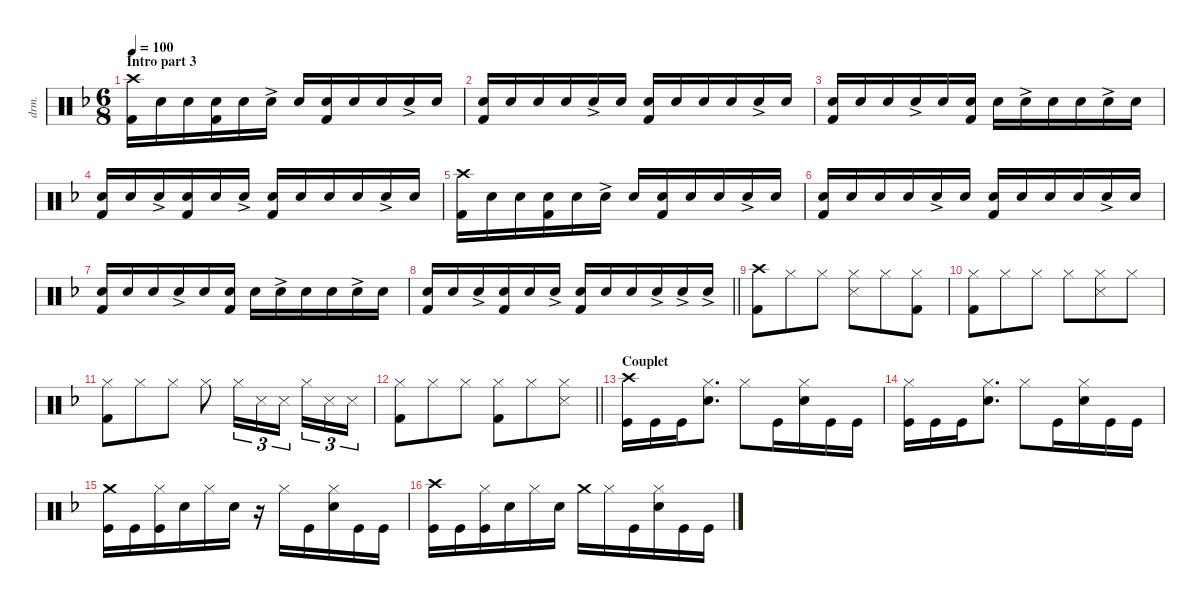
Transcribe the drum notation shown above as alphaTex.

\defaultSystemsLayout 4
\hideDynamics
\bracketExtendMode nobrackets
\otherSystemsTrackNameOrientation horizontal
\track ("Percussions" "drm.") {instrument percussion}
\staff {score}
\articulation defaults
\ts (6 8)
\section ("" "Intro part 3")
\tempo 100
\clef neutral
\ks dminor
("Crash high (hit)"{acc forcenatural} "Kick (hit) 2"{acc forcenatural}).16{dy f} "Snare (hit) 2"{acc forcenatural}.16{dy p} "Snare (hit) 2"{acc forcenatural}.16 ("Snare (hit) 2"{acc forcenatural} "Kick (hit) 2"{acc forcenatural}).16 "Snare (hit) 2"{acc forcenatural}.16 "Snare (hit) 2"{ac acc forcenatural}.16{dy mf} "Snare (hit) 2"{acc forcenatural}.16{dy p} ("Kick (hit) 2"{acc forcenatural} "Snare (hit) 2"{acc forcenatural}).16{dy f} "Snare (hit) 2"{acc forcenatural}.16{dy p} "Snare (hit) 2"{acc forcenatural}.16 "Snare (hit) 2"{ac acc forcenatural}.16{dy mf} "Snare (hit) 2"{acc forcenatural}.16{dy p} |
("Snare (hit) 2"{acc forcenatural} "Kick (hit) 2"{acc forcenatural}).16 "Snare (hit) 2"{acc forcenatural}.16 "Snare (hit) 2"{acc forcenatural}.16 "Snare (hit) 2"{acc forcenatural}.16 "Snare (hit) 2"{ac acc forcenatural}.16{dy f} "Snare (hit) 2"{acc forcenatural}.16{dy p} ("Snare (hit) 2"{acc forcenatural} "Kick (hit) 2"{acc forcenatural}).16 "Snare (hit) 2"{acc forcenatural}.16 "Snare (hit) 2"{acc forcenatural}.16 "Snare (hit) 2"{acc forcenatural}.16 "Snare (hit) 2"{ac acc forcenatural}.16{dy mf} "Snare (hit) 2"{acc forcenatural}.16{dy p} |
("Snare (hit) 2"{acc forcenatural} "Kick (hit) 2"{acc forcenatural}).16 "Snare (hit) 2"{acc forcenatural}.16 "Snare (hit) 2"{acc forcenatural}.16 "Snare (hit) 2"{ac acc forcenatural}.16{dy f} "Snare (hit) 2"{acc forcenatural}.16{dy p} ("Snare (hit) 2"{acc forcenatural} "Kick (hit) 2"{acc forcenatural}).16 "Snare (hit) 2"{acc forcenatural}.16 "Snare (hit) 2"{ac acc forcenatural}.16{dy mf} "Snare (hit) 2"{acc forcenatural}.16{dy p} "Snare (hit) 2"{acc forcenatural}.16 "Snare (hit) 2"{ac acc forcenatural}.16{dy mf} "Snare (hit) 2"{acc forcenatural}.16{dy p} |
("Snare (hit) 2"{acc forcenatural} "Kick (hit) 2"{acc forcenatural}).16 "Snare (hit) 2"{acc forcenatural}.16 "Snare (hit) 2"{ac acc forcenatural}.16{dy mf} ("Snare (hit) 2"{acc forcenatural} "Kick (hit) 2"{acc forcenatural}).16{dy p} "Snare (hit) 2"{acc forcenatural}.16 "Snare (hit) 2"{ac acc forcenatural}.16{dy mf} ("Snare (hit) 2"{acc forcenatural} "Kick (hit) 2"{acc forcenatural}).16{dy p} "Snare (hit) 2"{acc forcenatural}.16 "Snare (hit) 2"{acc forcenatural}.16 "Snare (hit) 2"{acc forcenatural}.16 "Snare (hit) 2"{ac acc forcenatural}.16{dy mf} "Snare (hit) 2"{acc forcenatural}.16{dy p} |
("Crash high (hit)"{acc forcenatural} "Kick (hit) 2"{acc forcenatural}).16{dy f} "Snare (hit) 2"{acc forcenatural}.16{dy p} "Snare (hit) 2"{acc forcenatural}.16 ("Snare (hit) 2"{acc forcenatural} "Kick (hit) 2"{acc forcenatural}).16 "Snare (hit) 2"{acc forcenatural}.16 "Snare (hit) 2"{ac acc forcenatural}.16{dy mf} "Snare (hit) 2"{acc forcenatural}.16{dy p} ("Kick (hit) 2"{acc forcenatural} "Snare (hit) 2"{acc forcenatural}).16{dy f} "Snare (hit) 2"{acc forcenatural}.16{dy p} "Snare (hit) 2"{acc forcenatural}.16 "Snare (hit) 2"{ac acc forcenatural}.16{dy mf} "Snare (hit) 2"{acc forcenatural}.16{dy p} |
("Snare (hit) 2"{acc forcenatural} "Kick (hit) 2"{acc forcenatural}).16 "Snare (hit) 2"{acc forcenatural}.16 "Snare (hit) 2"{acc forcenatural}.16 "Snare (hit) 2"{acc forcenatural}.16 "Snare (hit) 2"{ac acc forcenatural}.16{dy f} "Snare (hit) 2"{acc forcenatural}.16{dy p} ("Snare (hit) 2"{acc forcenatural} "Kick (hit) 2"{acc forcenatural}).16 "Snare (hit) 2"{acc forcenatural}.16 "Snare (hit) 2"{acc forcenatural}.16 "Snare (hit) 2"{acc forcenatural}.16 "Snare (hit) 2"{ac acc forcenatural}.16{dy mf} "Snare (hit) 2"{acc forcenatural}.16{dy p} |
("Snare (hit) 2"{acc forcenatural} "Kick (hit) 2"{acc forcenatural}).16 "Snare (hit) 2"{acc forcenatural}.16 "Snare (hit) 2"{acc forcenatural}.16 "Snare (hit) 2"{ac acc forcenatural}.16{dy f} "Snare (hit) 2"{acc forcenatural}.16{dy p} ("Snare (hit) 2"{acc forcenatural} "Kick (hit) 2"{acc forcenatural}).16 "Snare (hit) 2"{acc forcenatural}.16 "Snare (hit) 2"{ac acc forcenatural}.16{dy mf} "Snare (hit) 2"{acc forcenatural}.16{dy p} "Snare (hit) 2"{acc forcenatural}.16 "Snare (hit) 2"{ac acc forcenatural}.16{dy mf} "Snare (hit) 2"{acc forcenatural}.16{dy p} |
\barLineRight lightlight
("Snare (hit) 2"{acc forcenatural} "Kick (hit) 2"{acc forcenatural}).16 "Snare (hit) 2"{acc forcenatural}.16 "Snare (hit) 2"{ac acc forcenatural}.16{dy mf} ("Snare (hit) 2"{acc forcenatural} "Kick (hit) 2"{acc forcenatural}).16{dy p} "Snare (hit) 2"{acc forcenatural}.16 "Snare (hit) 2"{ac acc forcenatural}.16{dy mf} ("Snare (hit) 2"{acc forcenatural} "Kick (hit) 2"{acc forcenatural}).16{dy p} "Snare (hit) 2"{acc forcenatural}.16 "Snare (hit) 2"{acc forcenatural}.16{dy mp} "Snare (hit) 2"{ac acc forcenatural}.16{dy mf} "Snare (hit) 2"{ac acc forcenatural}.16 "Snare (hit) 2"{ac acc forcenatural}.16{dy f} |
("Crash high (hit)"{acc forcenatural} "Kick (hit) 2"{acc forcenatural}).8 "Hi-Hat (closed)"{acc forcenatural}.8 "Hi-Hat (closed)"{acc forcenatural}.8 ("Hi-Hat (closed)"{acc forcenatural} "Snare (side stick) 3"{acc forcenatural}).8 "Hi-Hat (closed)"{acc forcenatural}.8 ("Hi-Hat (closed)"{acc forcenatural} "Kick (hit) 2"{acc forcenatural}).8 |
("Hi-Hat (closed)"{acc forcenatural} "Kick (hit) 2"{acc forcenatural}).8 "Hi-Hat (closed)"{acc forcenatural}.8 "Hi-Hat (closed)"{acc forcenatural}.8 "Hi-Hat (closed)"{acc forcenatural}.8 ("Hi-Hat (closed)"{acc forcenatural} "Snare (side stick) 3"{acc forcenatural}).8 "Hi-Hat (closed)"{acc forcenatural}.8 |
("Hi-Hat (closed)"{acc forcenatural} "Kick (hit) 2"{acc forcenatural}).8 "Hi-Hat (closed)"{acc forcenatural}.8 "Hi-Hat (closed)"{acc forcenatural}.8 "Hi-Hat (closed)"{acc forcenatural}.8 "Hi-Hat (closed)"{acc forcenatural}.16{tu (3 2)} "Snare (side stick) 3"{acc forcenatural}.16{tu (3 2)} "Snare (side stick) 3"{acc forcenatural}.16{tu (3 2)} "Hi-Hat (closed)"{acc forcenatural}.16{tu (3 2)} "Snare (side stick) 3"{acc forcenatural}.16{tu (3 2)} "Snare (side stick) 3"{acc forcenatural}.16{tu (3 2)} |
\barLineRight lightlight
("Kick (hit) 2"{acc forcenatural} "Hi-Hat (closed)"{acc forcenatural}).8 "Hi-Hat (closed)"{acc forcenatural}.8 "Hi-Hat (closed)"{acc forcenatural}.8 ("Hi-Hat (closed)"{acc forcenatural} "Kick (hit) 2"{acc forcenatural}).8 "Hi-Hat (closed)"{acc forcenatural}.8 ("Hi-Hat (closed)"{acc forcenatural} "Snare (side stick) 3"{acc forcenatural}).8 |
\section ("" "Couplet")
("Crash high (hit)"{acc forcenatural} "Kick (hit)"{acc forcenatural}).16 "Kick (hit)"{acc forcenatural}.16 "Kick (hit)"{acc forcenatural}.16 ("Hi-Hat (closed)"{acc forcenatural} "Snare (hit) 2"{acc forcenatural}).8{d} "Hi-Hat (closed)"{acc forcenatural}.8 "Kick (hit)"{acc forcenatural}.16 ("Hi-Hat (closed)"{acc forcenatural} "Snare (hit) 2"{acc forcenatural}).16 "Kick (hit)"{acc forcenatural}.16 "Kick (hit)"{acc forcenatural}.16 |
("Hi-Hat (closed)"{acc forcenatural} "Kick (hit)"{acc forcenatural}).16 "Kick (hit)"{acc forcenatural}.16 "Kick (hit)"{acc forcenatural}.16 ("Hi-Hat (closed)"{acc forcenatural} "Snare (hit) 2"{acc forcenatural}).8{d} "Hi-Hat (closed)"{acc forcenatural}.8 "Kick (hit)"{acc forcenatural}.16 ("Hi-Hat (closed)"{acc forcenatural} "Snare (hit) 2"{acc forcenatural}).16 "Kick (hit)"{acc forcenatural}.16 "Kick (hit)"{acc forcenatural}.16 |
("Crash medium (hit)"{acc forcenatural} "Kick (hit)"{acc forcenatural}).16 "Kick (hit)"{acc forcenatural}.16 ("Hi-Hat (closed)"{acc forcenatural} "Kick (hit)"{acc forcenatural}).16 "Snare (hit) 2"{acc forcenatural}.16 "Hi-Hat (closed)"{acc forcenatural}.16 "Snare (hit) 2"{acc forcenatural}.16 r.16 "Hi-Hat (closed)"{acc forcenatural}.16 "Kick (hit)"{acc forcenatural}.16 ("Hi-Hat (closed)"{acc forcenatural} "Snare (hit) 2"{acc forcenatural}).16 "Kick (hit)"{acc forcenatural}.16 "Kick (hit)"{acc forcenatural}.16 |
("Crash high (hit)"{acc forcenatural} "Kick (hit)"{acc forcenatural}).16 "Kick (hit)"{acc forcenatural}.16 ("Hi-Hat (closed)"{acc forcenatural} "Kick (hit)"{acc forcenatural}).16 "Snare (hit) 2"{acc forcenatural}.16 "Hi-Hat (closed)"{acc forcenatural}.16 "Snare (hit) 2"{acc forcenatural}.16 "Crash medium (hit)"{acc forcenatural}.16 "Hi-Hat (closed)"{acc forcenatural}.16 "Kick (hit)"{acc forcenatural}.16 ("Hi-Hat (closed)"{acc forcenatural} "Snare (hit) 2"{acc forcenatural}).16 "Kick (hit)"{acc forcenatural}.16 "Kick (hit)"{acc forcenatural}.16
